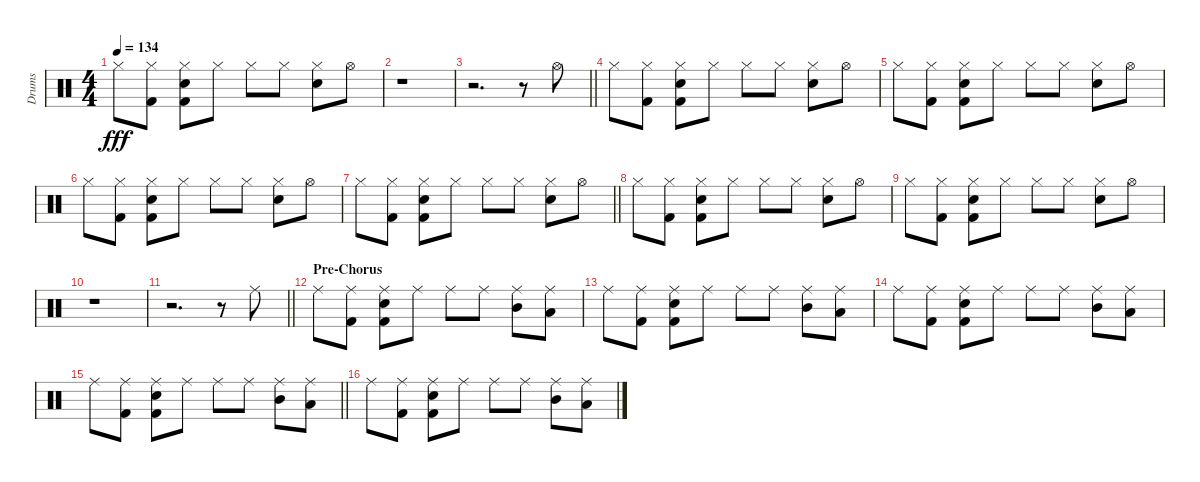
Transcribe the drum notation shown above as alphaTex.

\track ("Drums" "Drums") {instrument percussion}
\staff {score}
\articulation defaults
\ts (4 4)
\tempo 134
\clef neutral
\ks c "Hi-Hat (closed)".8{dy fff}
("Hi-Hat (closed)" "Kick (hit) 2").8 ("Hi-Hat (closed)" "Electric Snare (hit)" "Kick (hit) 2").8 "Hi-Hat (closed)".8 "Hi-Hat (closed)".8 "Hi-Hat (closed)".8 ("Hi-Hat (closed)" "Electric Snare (hit)").8 "Hi-Hat (open)".8 |
r.1 |
\barLineRight lightlight
r.2{d} r.8 "Hi-Hat (open)".8 |
"Hi-Hat (closed)".8 ("Hi-Hat (closed)" "Kick (hit) 2").8 ("Hi-Hat (closed)" "Electric Snare (hit)" "Kick (hit) 2").8 "Hi-Hat (closed)".8 "Hi-Hat (closed)".8 "Hi-Hat (closed)".8 ("Hi-Hat (closed)" "Electric Snare (hit)").8 "Hi-Hat (open)".8 |
"Hi-Hat (closed)".8 ("Hi-Hat (closed)" "Kick (hit) 2").8 ("Hi-Hat (closed)" "Electric Snare (hit)" "Kick (hit) 2").8 "Hi-Hat (closed)".8 "Hi-Hat (closed)".8 "Hi-Hat (closed)".8 ("Hi-Hat (closed)" "Electric Snare (hit)").8 "Hi-Hat (open)".8 |
"Hi-Hat (closed)".8 ("Hi-Hat (closed)" "Kick (hit) 2").8 ("Hi-Hat (closed)" "Electric Snare (hit)" "Kick (hit) 2").8 "Hi-Hat (closed)".8 "Hi-Hat (closed)".8 "Hi-Hat (closed)".8 ("Hi-Hat (closed)" "Electric Snare (hit)").8 "Hi-Hat (open)".8 |
\barLineRight lightlight "Hi-Hat (closed)".8
("Hi-Hat (closed)" "Kick (hit) 2").8 ("Hi-Hat (closed)" "Electric Snare (hit)" "Kick (hit) 2").8 "Hi-Hat (closed)".8 "Hi-Hat (closed)".8 "Hi-Hat (closed)".8 ("Hi-Hat (closed)" "Electric Snare (hit)").8 "Hi-Hat (open)".8 |
"Hi-Hat (closed)".8 ("Hi-Hat (closed)" "Kick (hit) 2").8 ("Hi-Hat (closed)" "Electric Snare (hit)" "Kick (hit) 2").8 "Hi-Hat (closed)".8 "Hi-Hat (closed)".8 "Hi-Hat (closed)".8 ("Hi-Hat (closed)" "Electric Snare (hit)").8 "Hi-Hat (open)".8 |
"Hi-Hat (closed)".8 ("Hi-Hat (closed)" "Kick (hit) 2").8 ("Hi-Hat (closed)" "Electric Snare (hit)" "Kick (hit) 2").8 "Hi-Hat (closed)".8 "Hi-Hat (closed)".8 "Hi-Hat (closed)".8 ("Hi-Hat (closed)" "Electric Snare (hit)").8 "Hi-Hat (open)".8 |
r.1 |
\barLineRight lightlight
r.2{d} r.8 "Ride (middle)".8 |
\section ("" "Pre-Chorus")
"Ride (middle)".8 ("Ride (middle)" "Kick (hit) 2").8 ("Ride (middle)" "Electric Snare (hit)" "Kick (hit) 2").8 "Ride (middle)".8 "Ride (middle)".8 "Ride (middle)".8 ("Ride (middle)" "Mid Tom (hit)").8 ("Ride (middle)" "Low Tom (hit)").8 |
"Ride (middle)".8 ("Ride (middle)" "Kick (hit) 2").8 ("Ride (middle)" "Electric Snare (hit)" "Kick (hit) 2").8 "Ride (middle)".8 "Ride (middle)".8 "Ride (middle)".8 ("Ride (middle)" "Mid Tom (hit)").8 ("Ride (middle)" "Low Tom (hit)").8 |
"Ride (middle)".8 ("Ride (middle)" "Kick (hit) 2").8 ("Ride (middle)" "Electric Snare (hit)" "Kick (hit) 2").8 "Ride (middle)".8 "Ride (middle)".8 "Ride (middle)".8 ("Ride (middle)" "Mid Tom (hit)").8 ("Ride (middle)" "Low Tom (hit)").8 |
\barLineRight lightlight "Ride (middle)".8
("Ride (middle)" "Kick (hit) 2").8 ("Ride (middle)" "Electric Snare (hit)" "Kick (hit) 2").8 "Ride (middle)".8 "Ride (middle)".8 "Ride (middle)".8 ("Ride (middle)" "Mid Tom (hit)").8 ("Ride (middle)" "Low Tom (hit)").8 |
"Ride (middle)".8 ("Ride (middle)" "Kick (hit) 2").8 ("Ride (middle)" "Electric Snare (hit)" "Kick (hit) 2").8 "Ride (middle)".8 "Ride (middle)".8 "Ride (middle)".8 ("Ride (middle)" "Mid Tom (hit)").8 ("Ride (middle)" "Low Tom (hit)").8
